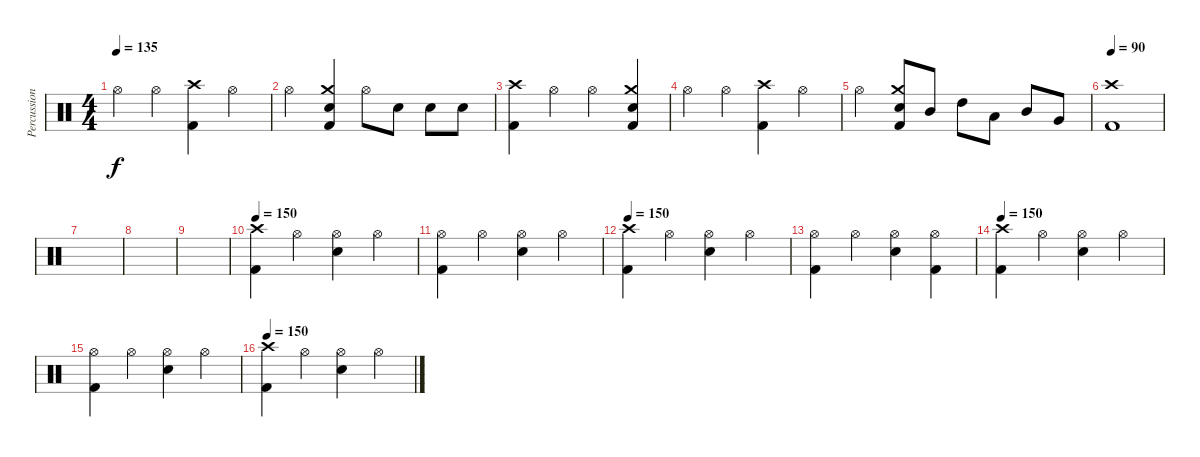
\track ("Percussion" "Percussion") {instrument percussion}
\staff {score}
\articulation defaults
\ts (4 4)
\tempo 135
\clef neutral
\ks c "Hi-Hat (open)".4{dy f} "Hi-Hat (open)".4
("Crash high (hit)" "Kick (hit) 2").4 "Hi-Hat (open)".4 |
"Hi-Hat (open)".4 ("Crash medium (hit)" "Snare (hit) 2" "Kick (hit) 2").4 "Hi-Hat (open)".8 "Snare (hit) 2".8 "Snare (hit) 2".8 "Snare (hit) 2".8 |
("Crash high (hit)" "Kick (hit) 2").4 "Hi-Hat (open)".4 "Hi-Hat (open)".4 ("Crash medium (hit)" "Snare (hit) 2" "Kick (hit) 2").4 |
"Hi-Hat (open)".4 "Hi-Hat (open)".4 ("Crash high (hit)" "Kick (hit) 2").4 "Hi-Hat (open)".4 |
"Hi-Hat (open)".4 ("Crash medium (hit)" "Snare (hit) 2" "Kick (hit) 2").8 "Mid Tom (hit)".8 "High Tom (hit)".8 "Low Tom (hit)".8 "Mid Tom (hit)".8 "Very Low Tom (hit)".8 |
\tempo 90
("Crash high (hit)" "Kick (hit) 2").1 |
|
|
|
\tempo 150
("Crash high (hit)" "Kick (hit) 2").4 "Hi-Hat (open)".4 ("Hi-Hat (open)" "Snare (hit) 2").4 "Hi-Hat (open)".4 |
("Hi-Hat (open)" "Kick (hit) 2").4 "Hi-Hat (open)".4 ("Hi-Hat (open)" "Snare (hit) 2").4 "Hi-Hat (open)".4 |
\tempo 150
("Crash high (hit)" "Kick (hit) 2").4 "Hi-Hat (open)".4 ("Hi-Hat (open)" "Snare (hit) 2").4 "Hi-Hat (open)".4 |
("Hi-Hat (open)" "Kick (hit) 2").4 "Hi-Hat (open)".4 ("Hi-Hat (open)" "Snare (hit) 2").4 ("Hi-Hat (open)" "Kick (hit) 2").4 |
\tempo 150
("Crash high (hit)" "Kick (hit) 2").4 "Hi-Hat (open)".4 ("Hi-Hat (open)" "Snare (hit) 2").4 "Hi-Hat (open)".4 |
("Hi-Hat (open)" "Kick (hit) 2").4 "Hi-Hat (open)".4 ("Hi-Hat (open)" "Snare (hit) 2").4 "Hi-Hat (open)".4 |
\tempo 150
("Crash high (hit)" "Kick (hit) 2").4 "Hi-Hat (open)".4 ("Hi-Hat (open)" "Snare (hit) 2").4 "Hi-Hat (open)".4
